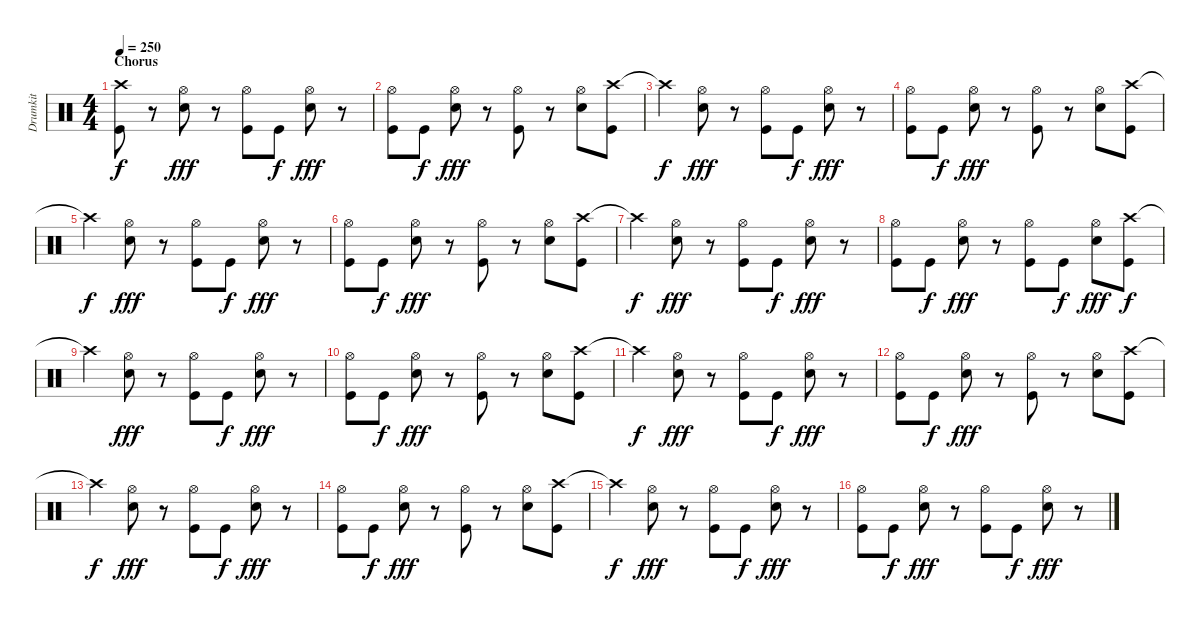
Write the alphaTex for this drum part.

\track ("Drumkit" "Drumkit") {instrument percussion}
\staff {score}
\articulation defaults
\ts (4 4)
\section ("" "Chorus")
\tempo 250
\clef neutral
\ks c
("Crash high (hit)" "Kick (hit)").8{dy f} r.8 ("Hi-Hat (open)" "Snare (hit) 2").8{dy fff} r.8 ("Hi-Hat (open)" "Kick (hit)").8 "Kick (hit)".8{dy f} ("Hi-Hat (open)" "Snare (hit) 2").8{dy fff} r.8 |
("Hi-Hat (open)" "Kick (hit)").8 "Kick (hit)".8{dy f} ("Hi-Hat (open)" "Snare (hit) 2").8{dy fff} r.8 ("Hi-Hat (open)" "Kick (hit)").8 r.8 ("Hi-Hat (open)" "Snare (hit) 2").8 ("Crash high (hit)" "Kick (hit)").8 |
"Crash high (hit)"{t}.4{dy f} ("Hi-Hat (open)" "Snare (hit) 2").8{dy fff} r.8 ("Hi-Hat (open)" "Kick (hit)").8 "Kick (hit)".8{dy f} ("Hi-Hat (open)" "Snare (hit) 2").8{dy fff} r.8 |
("Hi-Hat (open)" "Kick (hit)").8 "Kick (hit)".8{dy f} ("Hi-Hat (open)" "Snare (hit) 2").8{dy fff} r.8 ("Hi-Hat (open)" "Kick (hit)").8 r.8 ("Hi-Hat (open)" "Snare (hit) 2").8 ("Crash high (hit)" "Kick (hit)").8 |
"Crash high (hit)"{t}.4{dy f} ("Hi-Hat (open)" "Snare (hit) 2").8{dy fff} r.8 ("Hi-Hat (open)" "Kick (hit)").8 "Kick (hit)".8{dy f} ("Hi-Hat (open)" "Snare (hit) 2").8{dy fff} r.8 |
("Hi-Hat (open)" "Kick (hit)").8 "Kick (hit)".8{dy f} ("Hi-Hat (open)" "Snare (hit) 2").8{dy fff} r.8 ("Hi-Hat (open)" "Kick (hit)").8 r.8 ("Hi-Hat (open)" "Snare (hit) 2").8 ("Crash high (hit)" "Kick (hit)").8 |
"Crash high (hit)"{t}.4{dy f} ("Hi-Hat (open)" "Snare (hit) 2").8{dy fff} r.8 ("Hi-Hat (open)" "Kick (hit)").8 "Kick (hit)".8{dy f} ("Hi-Hat (open)" "Snare (hit) 2").8{dy fff} r.8 |
("Hi-Hat (open)" "Kick (hit)").8 "Kick (hit)".8{dy f} ("Hi-Hat (open)" "Snare (hit) 2").8{dy fff} r.8 ("Hi-Hat (open)" "Kick (hit)").8 "Kick (hit)".8{dy f} ("Hi-Hat (open)" "Snare (hit) 2").8{dy fff} ("Crash high (hit)" "Kick (hit)").8{dy f} |
"Crash high (hit)"{t}.4 ("Hi-Hat (open)" "Snare (hit) 2").8{dy fff} r.8 ("Hi-Hat (open)" "Kick (hit)").8 "Kick (hit)".8{dy f} ("Hi-Hat (open)" "Snare (hit) 2").8{dy fff} r.8 |
("Hi-Hat (open)" "Kick (hit)").8 "Kick (hit)".8{dy f} ("Hi-Hat (open)" "Snare (hit) 2").8{dy fff} r.8 ("Hi-Hat (open)" "Kick (hit)").8 r.8 ("Hi-Hat (open)" "Snare (hit) 2").8 ("Crash high (hit)" "Kick (hit)").8 |
"Crash high (hit)"{t}.4{dy f} ("Hi-Hat (open)" "Snare (hit) 2").8{dy fff} r.8 ("Hi-Hat (open)" "Kick (hit)").8 "Kick (hit)".8{dy f} ("Hi-Hat (open)" "Snare (hit) 2").8{dy fff} r.8 |
("Hi-Hat (open)" "Kick (hit)").8 "Kick (hit)".8{dy f} ("Hi-Hat (open)" "Snare (hit) 2").8{dy fff} r.8 ("Hi-Hat (open)" "Kick (hit)").8 r.8 ("Hi-Hat (open)" "Snare (hit) 2").8 ("Crash high (hit)" "Kick (hit)").8 |
"Crash high (hit)"{t}.4{dy f} ("Hi-Hat (open)" "Snare (hit) 2").8{dy fff} r.8 ("Hi-Hat (open)" "Kick (hit)").8 "Kick (hit)".8{dy f} ("Hi-Hat (open)" "Snare (hit) 2").8{dy fff} r.8 |
("Hi-Hat (open)" "Kick (hit)").8 "Kick (hit)".8{dy f} ("Hi-Hat (open)" "Snare (hit) 2").8{dy fff} r.8 ("Hi-Hat (open)" "Kick (hit)").8 r.8 ("Hi-Hat (open)" "Snare (hit) 2").8 ("Crash high (hit)" "Kick (hit)").8 |
"Crash high (hit)"{t}.4{dy f} ("Hi-Hat (open)" "Snare (hit) 2").8{dy fff} r.8 ("Hi-Hat (open)" "Kick (hit)").8 "Kick (hit)".8{dy f} ("Hi-Hat (open)" "Snare (hit) 2").8{dy fff} r.8 |
("Hi-Hat (open)" "Kick (hit)").8 "Kick (hit)".8{dy f} ("Hi-Hat (open)" "Snare (hit) 2").8{dy fff} r.8 ("Hi-Hat (open)" "Kick (hit)").8 "Kick (hit)".8{dy f} ("Hi-Hat (open)" "Snare (hit) 2").8{dy fff} r.8
